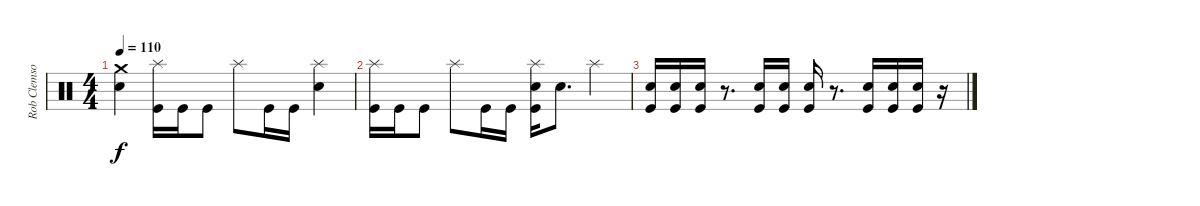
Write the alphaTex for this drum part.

\track ("Rob Clemson" "Rob Clemso") {instrument percussion}
\staff {score}
\articulation defaults
\ts (4 4)
\tempo 110
\clef neutral
\ks c
("Electric Snare (hit)" "Crash medium (hit)").4{dy f} ("Kick (hit)" "Splash (hit)").16 "Kick (hit)".16 "Kick (hit)".8 "Splash (hit)".8 "Kick (hit)".16 "Kick (hit)".16 ("Electric Snare (hit)" "Splash (hit)").4 |
("Kick (hit)" "Splash (hit)").16 "Kick (hit)".16 "Kick (hit)".8 "Splash (hit)".8 "Kick (hit)".16 "Kick (hit)".16 ("Kick (hit)" "Electric Snare (hit)" "Splash (hit)").16 "Electric Snare (hit)".8{d} "Splash (hit)".4 |
("Electric Snare (hit)" "Kick (hit)").16 ("Electric Snare (hit)" "Kick (hit)").16 ("Electric Snare (hit)" "Kick (hit)").16 r.8{d} ("Electric Snare (hit)" "Kick (hit)").16 ("Electric Snare (hit)" "Kick (hit)").16 ("Electric Snare (hit)" "Kick (hit)").16 r.8{d} ("Electric Snare (hit)" "Kick (hit)").16 ("Electric Snare (hit)" "Kick (hit)").16 ("Electric Snare (hit)" "Kick (hit)").16 r.16
